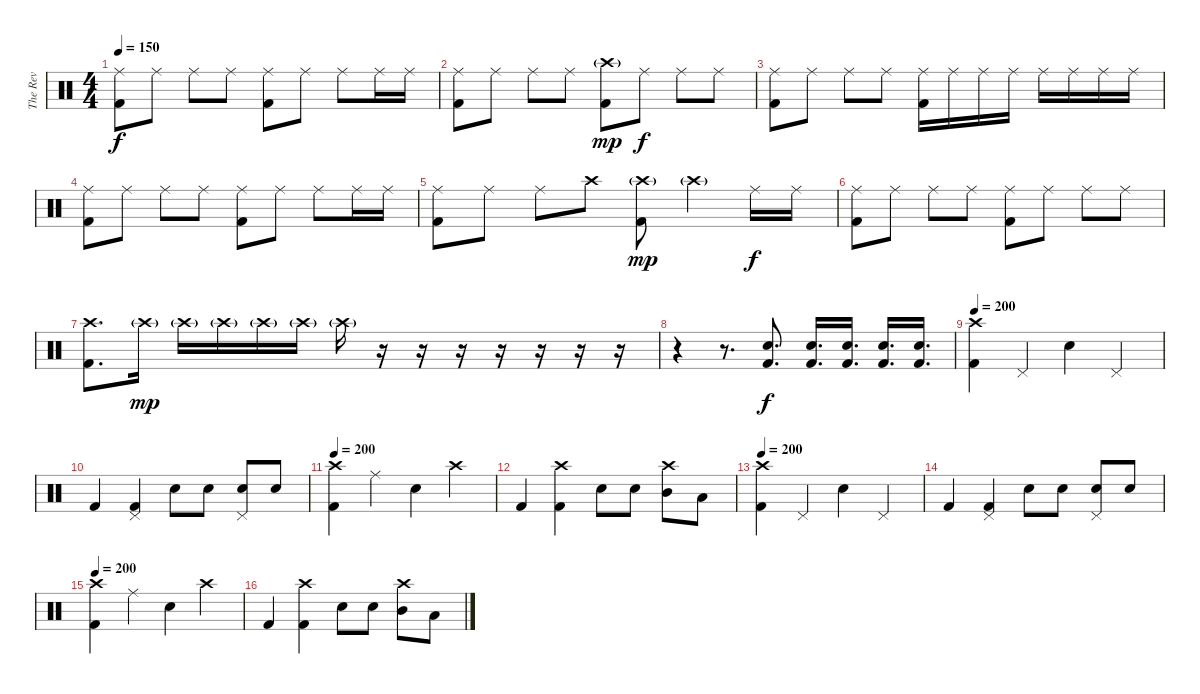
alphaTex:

\track ("The Rev" "The Rev") {instrument percussion}
\staff {score}
\articulation defaults
\ts (4 4)
\tempo 150
\clef neutral
\ks c
("Ride (middle)" "Kick (hit) 2").8{dy f} "Ride (middle)".8 "Ride (middle)".8 "Ride (middle)".8 ("Ride (middle)" "Kick (hit) 2").8 "Ride (middle)".8 "Ride (middle)".8 "Ride (middle)".16 "Ride (middle)".16 |
("Ride (middle)" "Kick (hit) 2").8 "Ride (middle)".8 "Ride (middle)".8 "Ride (middle)".8 ("Crash high (hit)"{g} "Kick (hit) 2").8{dy mp} "Ride (middle)".8{dy f} "Ride (middle)".8 "Ride (middle)".8 |
("Ride (middle)" "Kick (hit) 2").8 "Ride (middle)".8 "Ride (middle)".8 "Ride (middle)".8 ("Ride (middle)" "Kick (hit) 2").16 "Ride (middle)".16 "Ride (middle)".16 "Ride (middle)".16 "Ride (middle)".16 "Ride (middle)".16 "Ride (middle)".16 "Ride (middle)".16 |
("Ride (middle)" "Kick (hit) 2").8 "Ride (middle)".8 "Ride (middle)".8 "Ride (middle)".8 ("Ride (middle)" "Kick (hit) 2").8 "Ride (middle)".8 "Ride (middle)".8 "Ride (middle)".16 "Ride (middle)".16 |
("Ride (middle)" "Kick (hit) 2").8 "Ride (middle)".8 "Ride (middle)".8 "Crash high (hit)".8 ("Crash high (hit)"{g} "Kick (hit) 2").8{dy mp} "Crash high (hit)"{g}.4 "Ride (middle)".16{dy f} "Ride (middle)".16 |
("Ride (middle)" "Kick (hit) 2").8 "Ride (middle)".8 "Ride (middle)".8 "Ride (middle)".8 ("Ride (middle)" "Kick (hit) 2").8 "Ride (middle)".8 "Ride (middle)".8 "Ride (middle)".8 |
("Crash high (hit)" "Kick (hit) 2").8{d} "Crash high (hit)"{g}.16{dy mp} "Crash high (hit)"{g}.16 "Crash high (hit)"{g}.16 "Crash high (hit)"{g}.16 "Crash high (hit)"{g}.16 "Crash high (hit)"{g}.16 r.16 r.16 r.16 r.16 r.16 r.16 r.16 |
r.4 r.8{d} ("Electric Snare (hit)" "Kick (hit) 2").8{d dy f} ("Electric Snare (hit)" "Kick (hit) 2").16{d} ("Electric Snare (hit)" "Kick (hit) 2").16{d} ("Electric Snare (hit)" "Kick (hit) 2").16{d} ("Electric Snare (hit)" "Kick (hit) 2").16{d} |
\tempo 200
("Crash high (hit)" "Kick (hit) 2").4 "Pedal Hi-Hat (hit)".4 "Electric Snare (hit)".4 "Pedal Hi-Hat (hit)".4 |
"Kick (hit) 2".4 ("Pedal Hi-Hat (hit)" "Kick (hit) 2").4 "Electric Snare (hit)".8 "Electric Snare (hit)".8 ("Pedal Hi-Hat (hit)" "Electric Snare (hit)").8 "Electric Snare (hit)".8 |
\tempo 200
("Crash high (hit)" "Kick (hit) 2").4 "Ride (middle)".4 "Electric Snare (hit)".4 "Crash high (hit)".4 |
"Kick (hit) 2".4 ("Crash high (hit)" "Kick (hit) 2").4 "Electric Snare (hit)".8 "Electric Snare (hit)".8 ("Crash high (hit)" "Mid Tom (hit)").8 "Low Tom (hit)".8 |
\tempo 200
("Crash high (hit)" "Kick (hit) 2").4 "Pedal Hi-Hat (hit)".4 "Electric Snare (hit)".4 "Pedal Hi-Hat (hit)".4 |
"Kick (hit) 2".4 ("Pedal Hi-Hat (hit)" "Kick (hit) 2").4 "Electric Snare (hit)".8 "Electric Snare (hit)".8 ("Pedal Hi-Hat (hit)" "Electric Snare (hit)").8 "Electric Snare (hit)".8 |
\tempo 200
("Crash high (hit)" "Kick (hit) 2").4 "Ride (middle)".4 "Electric Snare (hit)".4 "Crash high (hit)".4 |
"Kick (hit) 2".4 ("Crash high (hit)" "Kick (hit) 2").4 "Electric Snare (hit)".8 "Electric Snare (hit)".8 ("Crash high (hit)" "Mid Tom (hit)").8 "Low Tom (hit)".8
